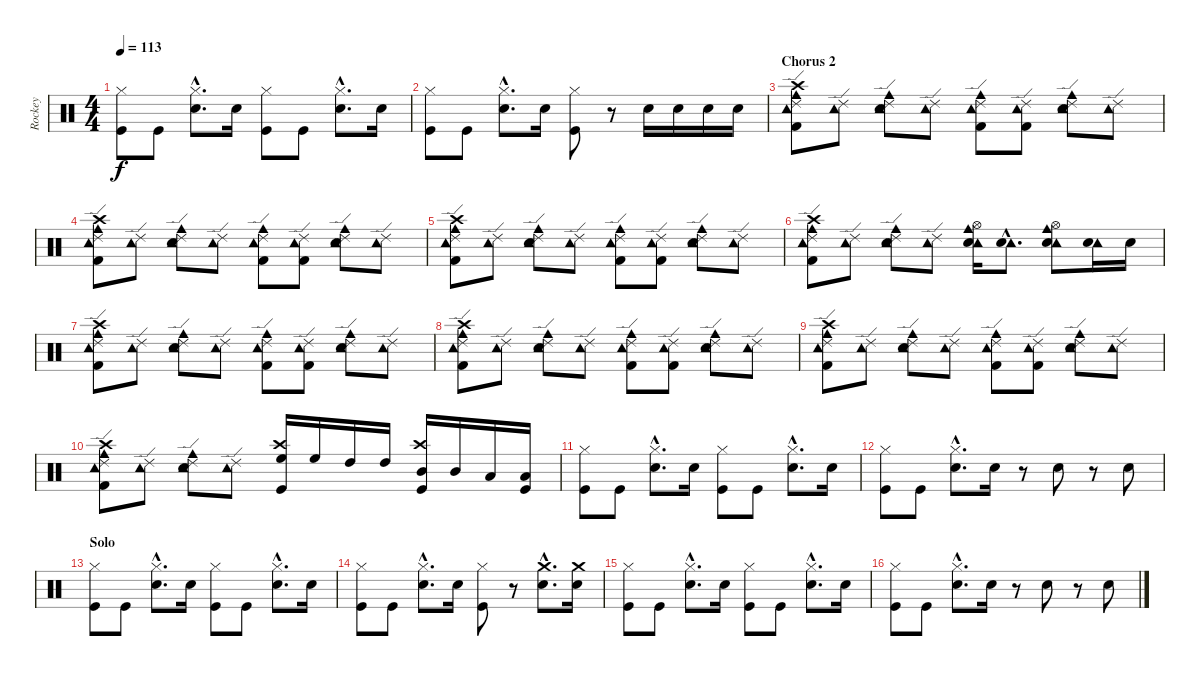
\track ("Rockey" "Rockey") {instrument percussion}
\staff {score}
\articulation defaults
\ts (4 4)
\tempo 113
\clef neutral
\ks c
("Hi-Hat (closed)" "Kick (hit)").8{dy f} "Kick (hit)".8 ("Hi-Hat (closed)"{hac} "Snare (hit) 2"{hac}).8{d} "Snare (hit) 2".16 ("Hi-Hat (closed)" "Kick (hit)").8 "Kick (hit)".8 ("Hi-Hat (closed)"{hac} "Snare (hit) 2"{hac}).8{d} "Snare (hit) 2".16 |
("Hi-Hat (closed)" "Kick (hit)").8 "Kick (hit)".8 ("Hi-Hat (closed)"{hac} "Snare (hit) 2"{hac}).8{d} "Snare (hit) 2".16 ("Hi-Hat (closed)" "Kick (hit)").8 r.8 "Snare (hit) 2".16 "Snare (hit) 2".16 "Snare (hit) 2".16 "Snare (hit) 2".16 |
\section ("" "Chorus 2")
("Ride (edge) 2" "Crash high (hit)" "Cowbell medium (hit)" "Kick (hit) 2" "Tambourine (hit)").8 ("Ride (edge) 2" "Tambourine (hit)").8 ("Ride (edge) 2" "Cowbell medium (hit)" "Snare (hit) 2" "Tambourine (hit)").8 ("Ride (edge) 2" "Tambourine (hit)").8 ("Ride (edge) 2" "Cowbell medium (hit)" "Kick (hit) 2" "Tambourine (hit)").8 ("Ride (edge) 2" "Kick (hit) 2" "Tambourine (hit)").8 ("Ride (edge) 2" "Cowbell medium (hit)" "Snare (hit) 2" "Tambourine (hit)").8 ("Ride (edge) 2" "Tambourine (hit)").8 |
("Ride (edge) 2" "Crash high (hit)" "Cowbell medium (hit)" "Kick (hit) 2" "Tambourine (hit)").8 ("Ride (edge) 2" "Tambourine (hit)").8 ("Ride (edge) 2" "Cowbell medium (hit)" "Snare (hit) 2" "Tambourine (hit)").8 ("Ride (edge) 2" "Tambourine (hit)").8 ("Ride (edge) 2" "Cowbell medium (hit)" "Kick (hit) 2" "Tambourine (hit)").8 ("Ride (edge) 2" "Kick (hit) 2" "Tambourine (hit)").8 ("Ride (edge) 2" "Cowbell medium (hit)" "Snare (hit) 2" "Tambourine (hit)").8 ("Ride (edge) 2" "Tambourine (hit)").8 |
("Ride (edge) 2" "Crash high (hit)" "Cowbell medium (hit)" "Kick (hit) 2" "Tambourine (hit)").8 ("Ride (edge) 2" "Tambourine (hit)").8 ("Ride (edge) 2" "Cowbell medium (hit)" "Snare (hit) 2" "Tambourine (hit)").8 ("Ride (edge) 2" "Tambourine (hit)").8 ("Ride (edge) 2" "Cowbell medium (hit)" "Kick (hit) 2" "Tambourine (hit)").8 ("Ride (edge) 2" "Kick (hit) 2" "Tambourine (hit)").8 ("Ride (edge) 2" "Cowbell medium (hit)" "Snare (hit) 2" "Tambourine (hit)").8 ("Ride (edge) 2" "Tambourine (hit)").8 |
("Ride (edge) 2" "Crash high (hit)" "Cowbell medium (hit)" "Kick (hit) 2" "Tambourine (hit)").8 ("Ride (edge) 2" "Tambourine (hit)").8 ("Ride (edge) 2" "Cowbell medium (hit)" "Snare (hit) 2" "Tambourine (hit)").8 ("Ride (edge) 2" "Tambourine (hit)").8 ("Hi-Hat (open)" "Tambourine (hit)" "Cowbell medium (hit)" "Snare (hit) 2").16 ("Tambourine (hit)"{hac} "Snare (hit) 2"{hac}).8{d} ("Hi-Hat (open)" "Tambourine (hit)" "Cowbell medium (hit)" "Snare (hit) 2").8 ("Tambourine (hit)" "Snare (hit) 2").16 "Snare (hit) 2".16 |
("Ride (edge) 2" "Crash high (hit)" "Cowbell medium (hit)" "Kick (hit) 2" "Tambourine (hit)").8 ("Ride (edge) 2" "Tambourine (hit)").8 ("Ride (edge) 2" "Cowbell medium (hit)" "Snare (hit) 2" "Tambourine (hit)").8 ("Ride (edge) 2" "Tambourine (hit)").8 ("Ride (edge) 2" "Cowbell medium (hit)" "Kick (hit) 2" "Tambourine (hit)").8 ("Ride (edge) 2" "Kick (hit) 2" "Tambourine (hit)").8 ("Ride (edge) 2" "Cowbell medium (hit)" "Snare (hit) 2" "Tambourine (hit)").8 ("Ride (edge) 2" "Tambourine (hit)").8 |
("Ride (edge) 2" "Crash high (hit)" "Cowbell medium (hit)" "Kick (hit) 2" "Tambourine (hit)").8 ("Ride (edge) 2" "Tambourine (hit)").8 ("Ride (edge) 2" "Cowbell medium (hit)" "Snare (hit) 2" "Tambourine (hit)").8 ("Ride (edge) 2" "Tambourine (hit)").8 ("Ride (edge) 2" "Cowbell medium (hit)" "Kick (hit) 2" "Tambourine (hit)").8 ("Ride (edge) 2" "Kick (hit) 2" "Tambourine (hit)").8 ("Ride (edge) 2" "Cowbell medium (hit)" "Snare (hit) 2" "Tambourine (hit)").8 ("Ride (edge) 2" "Tambourine (hit)").8 |
("Ride (edge) 2" "Crash high (hit)" "Cowbell medium (hit)" "Kick (hit) 2" "Tambourine (hit)").8 ("Ride (edge) 2" "Tambourine (hit)").8 ("Ride (edge) 2" "Cowbell medium (hit)" "Snare (hit) 2" "Tambourine (hit)").8 ("Ride (edge) 2" "Tambourine (hit)").8 ("Ride (edge) 2" "Cowbell medium (hit)" "Kick (hit) 2" "Tambourine (hit)").8 ("Ride (edge) 2" "Kick (hit) 2" "Tambourine (hit)").8 ("Ride (edge) 2" "Cowbell medium (hit)" "Snare (hit) 2" "Tambourine (hit)").8 ("Ride (edge) 2" "Tambourine (hit)").8 |
("Ride (edge) 2" "Crash high (hit)" "Cowbell medium (hit)" "Kick (hit) 2" "Tambourine (hit)").8 ("Ride (edge) 2" "Tambourine (hit)").8 ("Ride (edge) 2" "Cowbell medium (hit)" "Snare (hit) 2" "Tambourine (hit)").8 ("Ride (edge) 2" "Tambourine (hit)").8 ("Crash high (hit)" "High Floor Tom (hit)" "Kick (hit)").16 "High Floor Tom (hit)".16 "High Tom (hit)".16 "High Tom (hit)".16 ("Crash high (hit)" "Mid Tom (hit)" "Kick (hit)").16 "Mid Tom (hit)".16 "Low Tom (hit)".16 ("Low Tom (hit)" "Kick (hit)").16 |
("Hi-Hat (closed)" "Kick (hit)").8 "Kick (hit)".8 ("Hi-Hat (closed)"{hac} "Snare (hit) 2"{hac}).8{d} "Snare (hit) 2".16 ("Hi-Hat (closed)" "Kick (hit)").8 "Kick (hit)".8 ("Hi-Hat (closed)"{hac} "Snare (hit) 2"{hac}).8{d} "Snare (hit) 2".16 |
("Hi-Hat (closed)" "Kick (hit)").8 "Kick (hit)".8 ("Hi-Hat (closed)"{hac} "Snare (hit) 2"{hac}).8{d} "Snare (hit) 2".16 r.8 "Snare (hit) 2".8 r.8 "Snare (hit) 2".8 |
\section ("" "Solo")
("Hi-Hat (closed)" "Kick (hit)").8 "Kick (hit)".8 ("Hi-Hat (closed)"{hac} "Snare (hit) 2"{hac}).8{d} "Snare (hit) 2".16 ("Hi-Hat (closed)" "Kick (hit)").8 "Kick (hit)".8 ("Hi-Hat (closed)"{hac} "Snare (hit) 2"{hac}).8{d} "Snare (hit) 2".16 |
("Hi-Hat (closed)" "Kick (hit)").8 "Kick (hit)".8 ("Hi-Hat (closed)"{hac} "Snare (hit) 2"{hac}).8{d} "Snare (hit) 2".16 ("Hi-Hat (closed)" "Kick (hit)").8 r.8 ("Crash medium (hit)"{hac} "Snare (hit) 2"{hac}).8{d} ("Crash medium (hit)" "Snare (hit) 2").16 |
("Hi-Hat (closed)" "Kick (hit)").8 "Kick (hit)".8 ("Hi-Hat (closed)"{hac} "Snare (hit) 2"{hac}).8{d} "Snare (hit) 2".16 ("Hi-Hat (closed)" "Kick (hit)").8 "Kick (hit)".8 ("Hi-Hat (closed)"{hac} "Snare (hit) 2"{hac}).8{d} "Snare (hit) 2".16 |
("Hi-Hat (closed)" "Kick (hit)").8 "Kick (hit)".8 ("Hi-Hat (closed)"{hac} "Snare (hit) 2"{hac}).8{d} "Snare (hit) 2".16 r.8 "Snare (hit) 2".8 r.8 "Snare (hit) 2".8
